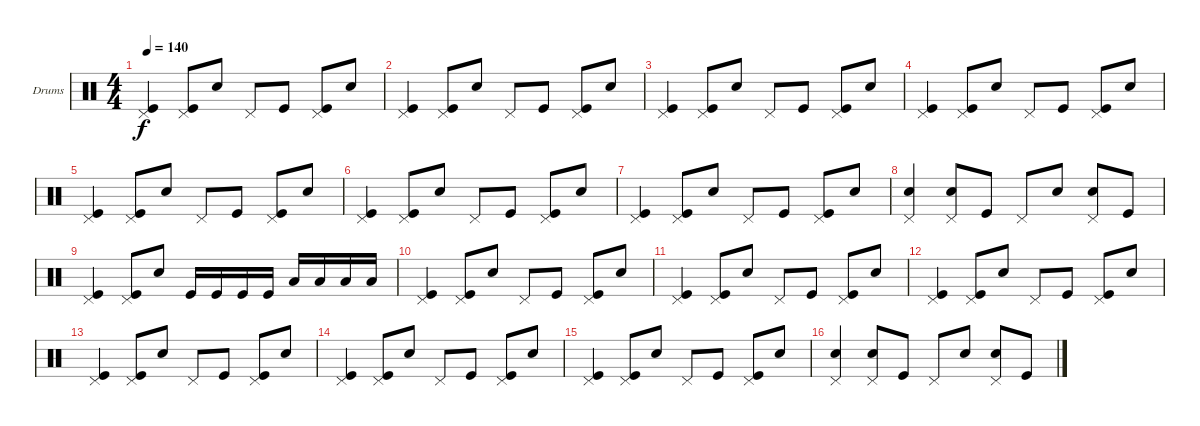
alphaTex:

\defaultSystemsLayout 4
\bracketExtendMode groupsimilarinstruments
\firstSystemTrackNameOrientation horizontal
\otherSystemsTrackNameOrientation horizontal
\track ("Drumkit" "Drums") {instrument percussion}
\staff {score}
\articulation defaults
\ts (4 4)
\tempo 140
\clef neutral
\ks c
("Kick (hit)" "Pedal Hi-Hat (hit)").4{dy f} ("Kick (hit)" "Pedal Hi-Hat (hit)").8 "Snare (hit) 2".8 "Pedal Hi-Hat (hit)".8 "Kick (hit)".8 ("Kick (hit)" "Pedal Hi-Hat (hit)").8 "Snare (hit) 2".8 |
("Kick (hit)" "Pedal Hi-Hat (hit)").4 ("Kick (hit)" "Pedal Hi-Hat (hit)").8 "Snare (hit) 2".8 "Pedal Hi-Hat (hit)".8 "Kick (hit)".8 ("Kick (hit)" "Pedal Hi-Hat (hit)").8 "Snare (hit) 2".8 |
("Kick (hit)" "Pedal Hi-Hat (hit)").4 ("Kick (hit)" "Pedal Hi-Hat (hit)").8 "Snare (hit) 2".8 "Pedal Hi-Hat (hit)".8 "Kick (hit)".8 ("Kick (hit)" "Pedal Hi-Hat (hit)").8 "Snare (hit) 2".8 |
("Kick (hit)" "Pedal Hi-Hat (hit)").4 ("Kick (hit)" "Pedal Hi-Hat (hit)").8 "Snare (hit) 2".8 "Pedal Hi-Hat (hit)".8 "Kick (hit)".8 ("Kick (hit)" "Pedal Hi-Hat (hit)").8 "Snare (hit) 2".8 |
("Kick (hit)" "Pedal Hi-Hat (hit)").4 ("Kick (hit)" "Pedal Hi-Hat (hit)").8 "Snare (hit) 2".8 "Pedal Hi-Hat (hit)".8 "Kick (hit)".8 ("Kick (hit)" "Pedal Hi-Hat (hit)").8 "Snare (hit) 2".8 |
("Kick (hit)" "Pedal Hi-Hat (hit)").4 ("Kick (hit)" "Pedal Hi-Hat (hit)").8 "Snare (hit) 2".8 "Pedal Hi-Hat (hit)".8 "Kick (hit)".8 ("Kick (hit)" "Pedal Hi-Hat (hit)").8 "Snare (hit) 2".8 |
("Kick (hit)" "Pedal Hi-Hat (hit)").4 ("Kick (hit)" "Pedal Hi-Hat (hit)").8 "Snare (hit) 2".8 "Pedal Hi-Hat (hit)".8 "Kick (hit)".8 ("Kick (hit)" "Pedal Hi-Hat (hit)").8 "Snare (hit) 2".8 |
("Pedal Hi-Hat (hit)" "Snare (hit) 2").4 ("Pedal Hi-Hat (hit)" "Snare (hit) 2").8 "Kick (hit)".8 "Pedal Hi-Hat (hit)".8 "Snare (hit) 2".8 ("Pedal Hi-Hat (hit)" "Snare (hit) 2").8 "Kick (hit)".8 |
("Kick (hit)" "Pedal Hi-Hat (hit)").4 ("Kick (hit)" "Pedal Hi-Hat (hit)").8 "Snare (hit) 2".8 "Kick (hit)".16 "Kick (hit)".16 "Kick (hit)".16 "Kick (hit)".16 "Low Tom (hit)".16 "Low Tom (hit)".16 "Low Tom (hit)".16 "Low Tom (hit)".16 |
("Kick (hit)" "Pedal Hi-Hat (hit)").4 ("Kick (hit)" "Pedal Hi-Hat (hit)").8 "Snare (hit) 2".8 "Pedal Hi-Hat (hit)".8 "Kick (hit)".8 ("Kick (hit)" "Pedal Hi-Hat (hit)").8 "Snare (hit) 2".8 |
("Kick (hit)" "Pedal Hi-Hat (hit)").4 ("Kick (hit)" "Pedal Hi-Hat (hit)").8 "Snare (hit) 2".8 "Pedal Hi-Hat (hit)".8 "Kick (hit)".8 ("Kick (hit)" "Pedal Hi-Hat (hit)").8 "Snare (hit) 2".8 |
("Kick (hit)" "Pedal Hi-Hat (hit)").4 ("Kick (hit)" "Pedal Hi-Hat (hit)").8 "Snare (hit) 2".8 "Pedal Hi-Hat (hit)".8 "Kick (hit)".8 ("Kick (hit)" "Pedal Hi-Hat (hit)").8 "Snare (hit) 2".8 |
("Kick (hit)" "Pedal Hi-Hat (hit)").4 ("Kick (hit)" "Pedal Hi-Hat (hit)").8 "Snare (hit) 2".8 "Pedal Hi-Hat (hit)".8 "Kick (hit)".8 ("Kick (hit)" "Pedal Hi-Hat (hit)").8 "Snare (hit) 2".8 |
("Kick (hit)" "Pedal Hi-Hat (hit)").4 ("Kick (hit)" "Pedal Hi-Hat (hit)").8 "Snare (hit) 2".8 "Pedal Hi-Hat (hit)".8 "Kick (hit)".8 ("Kick (hit)" "Pedal Hi-Hat (hit)").8 "Snare (hit) 2".8 |
("Kick (hit)" "Pedal Hi-Hat (hit)").4 ("Kick (hit)" "Pedal Hi-Hat (hit)").8 "Snare (hit) 2".8 "Pedal Hi-Hat (hit)".8 "Kick (hit)".8 ("Kick (hit)" "Pedal Hi-Hat (hit)").8 "Snare (hit) 2".8 |
("Pedal Hi-Hat (hit)" "Snare (hit) 2").4 ("Pedal Hi-Hat (hit)" "Snare (hit) 2").8 "Kick (hit)".8 "Pedal Hi-Hat (hit)".8 "Snare (hit) 2".8 ("Pedal Hi-Hat (hit)" "Snare (hit) 2").8 "Kick (hit)".8
